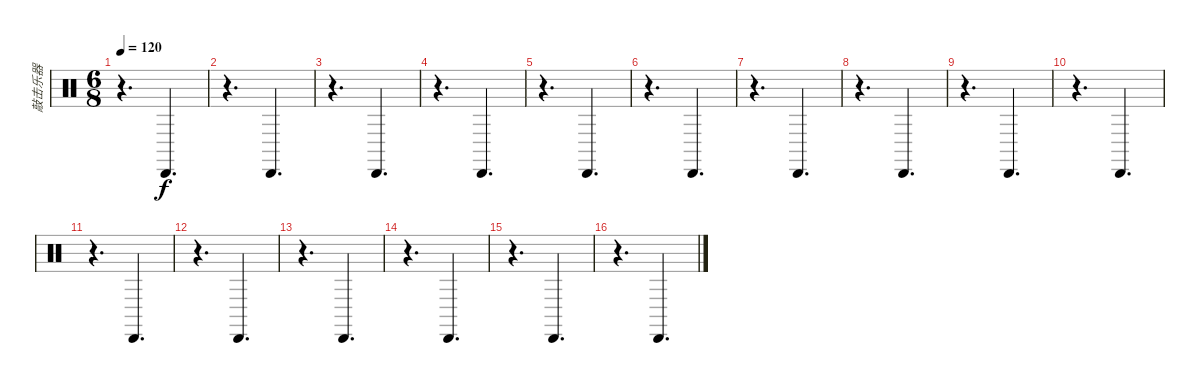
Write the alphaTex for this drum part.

\track ("敲击乐器" "敲击乐器") {instrument percussion}
\staff {score}
\articulation defaults
\ts (6 8)
\tempo 120
\clef neutral
\ks c
r.4{d dy f} "Cabasa (hit)".4{d} |
r.4{d} "Cabasa (hit)".4{d} |
r.4{d} "Cabasa (hit)".4{d} |
r.4{d} "Cabasa (hit)".4{d} |
r.4{d} "Cabasa (hit)".4{d} |
r.4{d} "Cabasa (hit)".4{d} |
r.4{d} "Cabasa (hit)".4{d} |
r.4{d} "Cabasa (hit)".4{d} |
r.4{d} "Cabasa (hit)".4{d} |
r.4{d} "Cabasa (hit)".4{d} |
r.4{d} "Cabasa (hit)".4{d} |
r.4{d} "Cabasa (hit)".4{d} |
r.4{d} "Cabasa (hit)".4{d} |
r.4{d} "Cabasa (hit)".4{d} |
r.4{d} "Cabasa (hit)".4{d} |
r.4{d} "Cabasa (hit)".4{d}
